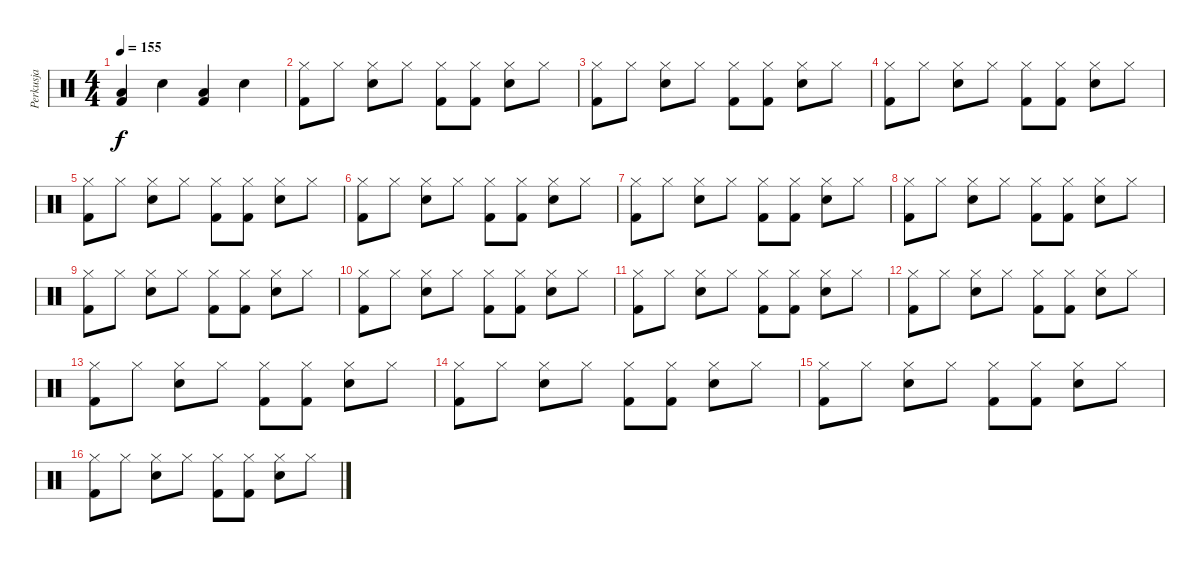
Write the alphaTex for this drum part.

\track ("Perkusja" "Perkusja") {instrument percussion}
\staff {score}
\articulation defaults
\ts (4 4)
\tempo 155
\clef neutral
\ks c
("Low Floor Tom (hit)" "Kick (hit) 2").4{dy f} "Electric Snare (hit)".4 ("Low Floor Tom (hit)" "Kick (hit) 2").4 "Electric Snare (hit)".4 |
("Hi-Hat (closed)" "Kick (hit) 2").8 "Hi-Hat (closed)".8 ("Hi-Hat (closed)" "Electric Snare (hit)").8 "Hi-Hat (closed)".8 ("Hi-Hat (closed)" "Kick (hit) 2").8 ("Hi-Hat (closed)" "Kick (hit) 2").8 ("Hi-Hat (closed)" "Electric Snare (hit)").8 "Hi-Hat (closed)".8 |
("Hi-Hat (closed)" "Kick (hit) 2").8 "Hi-Hat (closed)".8 ("Hi-Hat (closed)" "Electric Snare (hit)").8 "Hi-Hat (closed)".8 ("Hi-Hat (closed)" "Kick (hit) 2").8 ("Hi-Hat (closed)" "Kick (hit) 2").8 ("Hi-Hat (closed)" "Electric Snare (hit)").8 "Hi-Hat (closed)".8 |
("Hi-Hat (closed)" "Kick (hit) 2").8 "Hi-Hat (closed)".8 ("Hi-Hat (closed)" "Electric Snare (hit)").8 "Hi-Hat (closed)".8 ("Hi-Hat (closed)" "Kick (hit) 2").8 ("Hi-Hat (closed)" "Kick (hit) 2").8 ("Hi-Hat (closed)" "Electric Snare (hit)").8 "Hi-Hat (closed)".8 |
("Hi-Hat (closed)" "Kick (hit) 2").8 "Hi-Hat (closed)".8 ("Hi-Hat (closed)" "Electric Snare (hit)").8 "Hi-Hat (closed)".8 ("Hi-Hat (closed)" "Kick (hit) 2").8 ("Hi-Hat (closed)" "Kick (hit) 2").8 ("Hi-Hat (closed)" "Electric Snare (hit)").8 "Hi-Hat (closed)".8 |
("Hi-Hat (closed)" "Kick (hit) 2").8 "Hi-Hat (closed)".8 ("Hi-Hat (closed)" "Electric Snare (hit)").8 "Hi-Hat (closed)".8 ("Hi-Hat (closed)" "Kick (hit) 2").8 ("Hi-Hat (closed)" "Kick (hit) 2").8 ("Hi-Hat (closed)" "Electric Snare (hit)").8 "Hi-Hat (closed)".8 |
("Hi-Hat (closed)" "Kick (hit) 2").8 "Hi-Hat (closed)".8 ("Hi-Hat (closed)" "Electric Snare (hit)").8 "Hi-Hat (closed)".8 ("Hi-Hat (closed)" "Kick (hit) 2").8 ("Hi-Hat (closed)" "Kick (hit) 2").8 ("Hi-Hat (closed)" "Electric Snare (hit)").8 "Hi-Hat (closed)".8 |
("Hi-Hat (closed)" "Kick (hit) 2").8 "Hi-Hat (closed)".8 ("Hi-Hat (closed)" "Electric Snare (hit)").8 "Hi-Hat (closed)".8 ("Hi-Hat (closed)" "Kick (hit) 2").8 ("Hi-Hat (closed)" "Kick (hit) 2").8 ("Hi-Hat (closed)" "Electric Snare (hit)").8 "Hi-Hat (closed)".8 |
("Hi-Hat (closed)" "Kick (hit) 2").8 "Hi-Hat (closed)".8 ("Hi-Hat (closed)" "Electric Snare (hit)").8 "Hi-Hat (closed)".8 ("Hi-Hat (closed)" "Kick (hit) 2").8 ("Hi-Hat (closed)" "Kick (hit) 2").8 ("Hi-Hat (closed)" "Electric Snare (hit)").8 "Hi-Hat (closed)".8 |
("Hi-Hat (closed)" "Kick (hit) 2").8 "Hi-Hat (closed)".8 ("Hi-Hat (closed)" "Electric Snare (hit)").8 "Hi-Hat (closed)".8 ("Hi-Hat (closed)" "Kick (hit) 2").8 ("Hi-Hat (closed)" "Kick (hit) 2").8 ("Hi-Hat (closed)" "Electric Snare (hit)").8 "Hi-Hat (closed)".8 |
("Hi-Hat (closed)" "Kick (hit) 2").8 "Hi-Hat (closed)".8 ("Hi-Hat (closed)" "Electric Snare (hit)").8 "Hi-Hat (closed)".8 ("Hi-Hat (closed)" "Kick (hit) 2").8 ("Hi-Hat (closed)" "Kick (hit) 2").8 ("Hi-Hat (closed)" "Electric Snare (hit)").8 "Hi-Hat (closed)".8 |
("Hi-Hat (closed)" "Kick (hit) 2").8 "Hi-Hat (closed)".8 ("Hi-Hat (closed)" "Electric Snare (hit)").8 "Hi-Hat (closed)".8 ("Hi-Hat (closed)" "Kick (hit) 2").8 ("Hi-Hat (closed)" "Kick (hit) 2").8 ("Hi-Hat (closed)" "Electric Snare (hit)").8 "Hi-Hat (closed)".8 |
("Hi-Hat (closed)" "Kick (hit) 2").8 "Hi-Hat (closed)".8 ("Hi-Hat (closed)" "Electric Snare (hit)").8 "Hi-Hat (closed)".8 ("Hi-Hat (closed)" "Kick (hit) 2").8 ("Hi-Hat (closed)" "Kick (hit) 2").8 ("Hi-Hat (closed)" "Electric Snare (hit)").8 "Hi-Hat (closed)".8 |
("Hi-Hat (closed)" "Kick (hit) 2").8 "Hi-Hat (closed)".8 ("Hi-Hat (closed)" "Electric Snare (hit)").8 "Hi-Hat (closed)".8 ("Hi-Hat (closed)" "Kick (hit) 2").8 ("Hi-Hat (closed)" "Kick (hit) 2").8 ("Hi-Hat (closed)" "Electric Snare (hit)").8 "Hi-Hat (closed)".8 |
("Hi-Hat (closed)" "Kick (hit) 2").8 "Hi-Hat (closed)".8 ("Hi-Hat (closed)" "Electric Snare (hit)").8 "Hi-Hat (closed)".8 ("Hi-Hat (closed)" "Kick (hit) 2").8 ("Hi-Hat (closed)" "Kick (hit) 2").8 ("Hi-Hat (closed)" "Electric Snare (hit)").8 "Hi-Hat (closed)".8 |
("Hi-Hat (closed)" "Kick (hit) 2").8 "Hi-Hat (closed)".8 ("Hi-Hat (closed)" "Electric Snare (hit)").8 "Hi-Hat (closed)".8 ("Hi-Hat (closed)" "Kick (hit) 2").8 ("Hi-Hat (closed)" "Kick (hit) 2").8 ("Hi-Hat (closed)" "Electric Snare (hit)").8 "Hi-Hat (closed)".8
